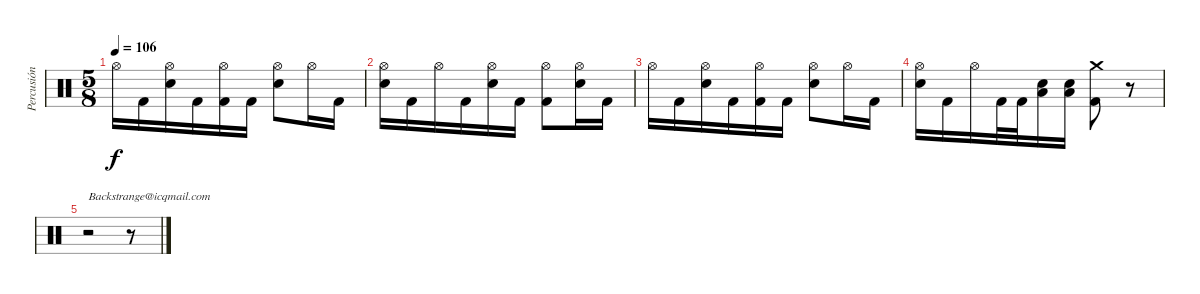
\track ("Percusión" "Percusión") {instrument percussion}
\staff {score}
\articulation defaults
\ts (5 8)
\tempo 106
\clef neutral
\ks c "Hi-Hat (open)".16{dy f} "Kick (hit) 2".16
("Electric Snare (hit)" "Hi-Hat (open)").16 "Kick (hit) 2".16 ("Kick (hit) 2" "Hi-Hat (open)").16 "Kick (hit) 2".16 ("Electric Snare (hit)" "Hi-Hat (open)").8 "Hi-Hat (open)".16 "Kick (hit) 2".16 |
("Electric Snare (hit)" "Hi-Hat (open)").16 "Kick (hit) 2".16 "Hi-Hat (open)".16 "Kick (hit) 2".16 ("Electric Snare (hit)" "Hi-Hat (open)").16 "Kick (hit) 2".16 ("Kick (hit) 2" "Hi-Hat (open)").8 ("Electric Snare (hit)" "Hi-Hat (open)").16 "Kick (hit) 2".16 |
"Hi-Hat (open)".16 "Kick (hit) 2".16 ("Electric Snare (hit)" "Hi-Hat (open)").16 "Kick (hit) 2".16 ("Kick (hit) 2" "Hi-Hat (open)").16 "Kick (hit) 2".16 ("Electric Snare (hit)" "Hi-Hat (open)").8 "Hi-Hat (open)".16 "Kick (hit) 2".16 |
("Electric Snare (hit)" "Hi-Hat (open)").16 "Kick (hit) 2".16 "Hi-Hat (open)".16 "Kick (hit) 2".32 "Kick (hit) 2".32 ("Low Tom (hit)" "Electric Snare (hit)").16 ("Low Tom (hit)" "Electric Snare (hit)").16 ("Crash medium (hit)" "Kick (hit) 2").8 r.8 |
r.2{txt "Backstrange@icqmail.com"} r.8
